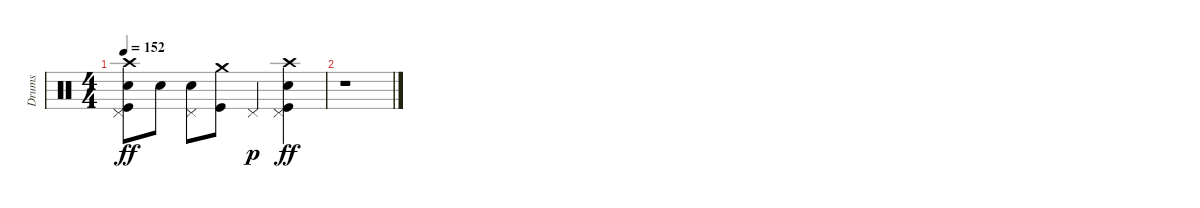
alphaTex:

\track ("Drums" "Drums") {instrument percussion}
\staff {score}
\articulation defaults
\ts (4 4)
\tempo 152
\clef neutral
\ks c
("Crash high (hit)" "Pedal Hi-Hat (hit)" "Snare (hit) 2" "Kick (hit)").8{dy ff} "Snare (hit) 2".8 ("Pedal Hi-Hat (hit)" "Snare (hit) 2").8 ("Crash medium (hit)" "Kick (hit)").8 "Pedal Hi-Hat (hit)".4{dy p} ("Crash high (hit)" "Pedal Hi-Hat (hit)" "Snare (hit) 2" "Kick (hit)").4{dy ff} |
r.1
